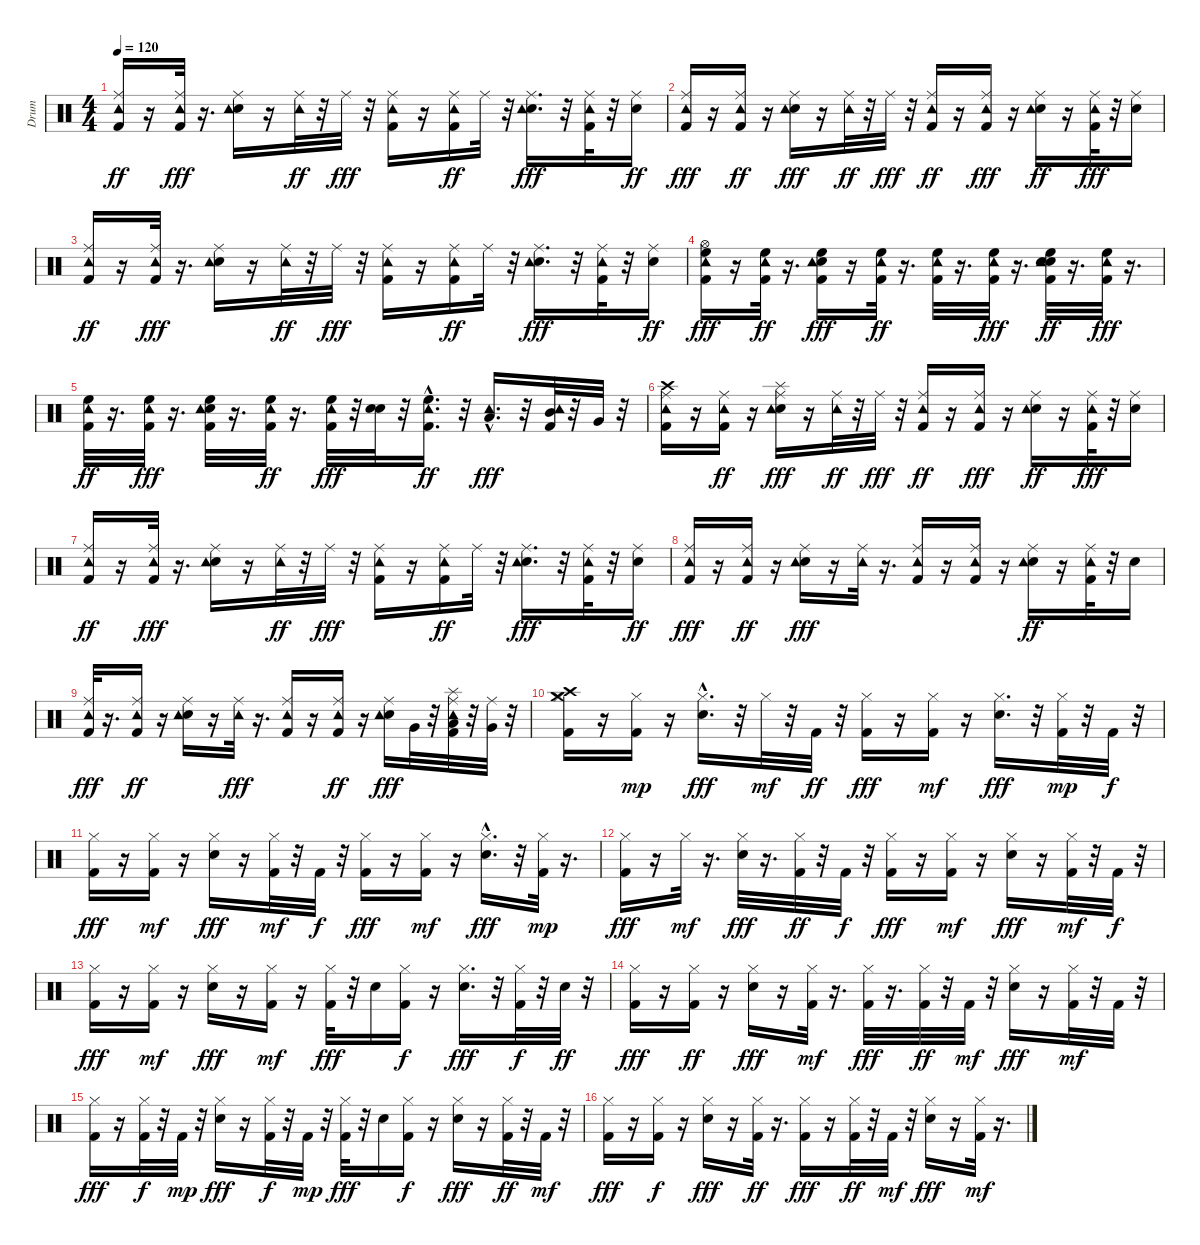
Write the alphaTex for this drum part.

\track ("Drum" "Drum") {instrument percussion}
\staff {score}
\articulation defaults
\ts (4 4)
\tempo 120
\clef neutral
\ks c
("Kick (hit) 2" "Ride (middle)" "Tambourine (hit)").16{dy ff} r.16 ("Kick (hit) 2" "Ride (middle)" "Tambourine (hit)").32{dy fff} r.16{d} ("Electric Snare (hit)" "Ride (middle)" "Tambourine (hit)").16 r.16 ("Ride (middle)" "Tambourine (hit)").32{dy ff} r.32 "Ride (middle)".32{dy fff} r.32 ("Kick (hit) 2" "Ride (middle)" "Tambourine (hit)").16 r.16 ("Kick (hit) 2" "Ride (middle)" "Tambourine (hit)").16{dy ff} "Ride (middle)".32 r.32 ("Electric Snare (hit)" "Ride (middle)" "Tambourine (hit)").16{d dy fff} r.32 ("Kick (hit) 2" "Ride (middle)" "Tambourine (hit)").32 r.32 ("Electric Snare (hit)" "Ride (middle)").16{dy ff} |
("Kick (hit) 2" "Ride (middle)" "Tambourine (hit)").16{dy fff} r.16 ("Kick (hit) 2" "Ride (middle)" "Tambourine (hit)").16{dy ff} r.16 ("Electric Snare (hit)" "Ride (middle)" "Tambourine (hit)").16{dy fff} r.16 ("Ride (middle)" "Tambourine (hit)").32{dy ff} r.32 "Ride (middle)".32{dy fff} r.32 ("Kick (hit) 2" "Ride (middle)" "Tambourine (hit)").16{dy ff} r.16 ("Kick (hit) 2" "Ride (middle)" "Tambourine (hit)").16{dy fff} r.16 ("Electric Snare (hit)" "Ride (middle)" "Tambourine (hit)").16{dy ff} r.16 ("Kick (hit) 2" "Ride (middle)" "Tambourine (hit)").32{dy fff} r.32 ("Electric Snare (hit)" "Ride (middle)").16 |
("Kick (hit) 2" "Ride (middle)" "Tambourine (hit)").16{dy ff} r.16 ("Kick (hit) 2" "Ride (middle)" "Tambourine (hit)").32{dy fff} r.16{d} ("Electric Snare (hit)" "Ride (middle)" "Tambourine (hit)").16 r.16 ("Ride (middle)" "Tambourine (hit)").32{dy ff} r.32 "Ride (middle)".32{dy fff} r.32 ("Kick (hit) 2" "Ride (middle)" "Tambourine (hit)").16 r.16 ("Kick (hit) 2" "Ride (middle)" "Tambourine (hit)").16{dy ff} "Ride (middle)".32 r.32 ("Electric Snare (hit)" "Ride (middle)" "Tambourine (hit)").16{d dy fff} r.32 ("Kick (hit) 2" "Ride (middle)" "Tambourine (hit)").32 r.32 ("Electric Snare (hit)" "Ride (middle)").16{dy ff} |
("Kick (hit) 2" "Hi-Hat (open)" "High Floor Tom (hit)" "Tambourine (hit)").16{dy fff} r.16 ("Kick (hit) 2" "High Floor Tom (hit)" "Tambourine (hit)").32{dy ff} r.16{d} ("Kick (hit) 2" "Electric Snare (hit)" "High Floor Tom (hit)" "Tambourine (hit)").16{dy fff} r.16 ("Kick (hit) 2" "High Floor Tom (hit)" "Tambourine (hit)").32{dy ff} r.16{d} ("Kick (hit) 2" "High Floor Tom (hit)" "Tambourine (hit)").32 r.16{d} ("Kick (hit) 2" "High Floor Tom (hit)" "Tambourine (hit)").32{dy fff} r.16{d} ("Kick (hit) 2" "Snare (hit) 2" "Electric Snare (hit)" "High Floor Tom (hit)" "Tambourine (hit)").32{dy ff} r.16{d} ("Kick (hit) 2" "High Floor Tom (hit)" "Tambourine (hit)").32{dy fff} r.16{d} |
("Kick (hit) 2" "High Floor Tom (hit)" "Tambourine (hit)").32{dy ff} r.16{d} ("Kick (hit) 2" "High Floor Tom (hit)" "Tambourine (hit)").32{dy fff} r.16{d} ("Kick (hit) 2" "Electric Snare (hit)" "High Floor Tom (hit)" "Tambourine (hit)").32 r.16{d} ("Kick (hit) 2" "High Floor Tom (hit)" "Tambourine (hit)").32{dy ff} r.16{d} ("Kick (hit) 2" "High Floor Tom (hit)" "Tambourine (hit)").32{dy fff} r.32 ("Electric Snare (hit)" "Electric Snare (hit)").32 r.32 ("Kick (hit) 2" "High Floor Tom (hit)"{hac} "Tambourine (hit)").16{d dy ff} r.32 ("Low Tom (hit)"{hac} "Tambourine (hit)").16{d dy fff} r.32 ("Kick (hit) 2" "Mid Tom (hit)" "Tambourine (hit)").32 r.32 "Very Low Tom (hit)".32 r.32 |
("Kick (hit) 2" "Crash high (hit)" "Ride (middle)" "Tambourine (hit)").16 r.16 ("Kick (hit) 2" "Ride (middle)" "Tambourine (hit)").16{dy ff} r.16 ("Electric Snare (hit)" "Ride (middle)" "Tambourine (hit)" "Splash (hit)").16{dy fff} r.16 ("Ride (middle)" "Tambourine (hit)").32{dy ff} r.32 "Ride (middle)".32{dy fff} r.32 ("Kick (hit) 2" "Ride (middle)" "Tambourine (hit)").16{dy ff} r.16 ("Kick (hit) 2" "Ride (middle)" "Tambourine (hit)").16{dy fff} r.16 ("Electric Snare (hit)" "Ride (middle)" "Tambourine (hit)").16{dy ff} r.16 ("Kick (hit) 2" "Ride (middle)" "Tambourine (hit)").32{dy fff} r.32 ("Electric Snare (hit)" "Ride (middle)").16 |
("Kick (hit) 2" "Ride (middle)" "Tambourine (hit)").16{dy ff} r.16 ("Kick (hit) 2" "Ride (middle)" "Tambourine (hit)").32{dy fff} r.16{d} ("Electric Snare (hit)" "Ride (middle)" "Tambourine (hit)").16 r.16 ("Ride (middle)" "Tambourine (hit)").32{dy ff} r.32 "Ride (middle)".32{dy fff} r.32 ("Kick (hit) 2" "Ride (middle)" "Tambourine (hit)").16 r.16 ("Kick (hit) 2" "Ride (middle)" "Tambourine (hit)").16{dy ff} "Ride (middle)".32 r.32 ("Electric Snare (hit)" "Ride (middle)" "Tambourine (hit)").16{d dy fff} r.32 ("Kick (hit) 2" "Ride (middle)" "Tambourine (hit)").32 r.32 ("Electric Snare (hit)" "Ride (middle)").16{dy ff} |
("Kick (hit) 2" "Ride (middle)" "Tambourine (hit)").16{dy fff} r.16 ("Kick (hit) 2" "Ride (middle)" "Tambourine (hit)").16{dy ff} r.16 ("Electric Snare (hit)" "Ride (middle)" "Tambourine (hit)").16{dy fff} r.16 ("Ride (middle)" "Tambourine (hit)").32 r.16{d} ("Kick (hit) 2" "Ride (middle)" "Tambourine (hit)").16 r.16 ("Kick (hit) 2" "Ride (middle)" "Tambourine (hit)").16 r.16 ("Electric Snare (hit)" "Ride (middle)" "Tambourine (hit)").16{dy ff} r.16 ("Kick (hit) 2" "Ride (middle)" "Tambourine (hit)").32 r.32 "Electric Snare (hit)".16 |
("Kick (hit) 2" "Ride (middle)" "Tambourine (hit)").32{dy fff} r.16{d} ("Kick (hit) 2" "Ride (middle)" "Tambourine (hit)").16{dy ff} r.16 ("Electric Snare (hit)" "Ride (middle)" "Tambourine (hit)").16 r.16 ("Ride (middle)" "Tambourine (hit)").32{dy fff} r.16{d} ("Kick (hit) 2" "Ride (middle)" "Tambourine (hit)").16 r.16 ("Kick (hit) 2" "Ride (middle)" "Tambourine (hit)").16{dy ff} r.16 ("Electric Snare (hit)" "Ride (middle)" "Tambourine (hit)").16{dy fff} "Very Low Tom (hit)".32 r.32 ("Kick (hit) 2" "Low Tom (hit)" "Ride (middle)" "Tambourine (hit)" "Splash (hit)").32 r.32 ("Very Low Tom (hit)" "Ride (middle)").32 r.32 |
("Kick (hit) 2" "Hi-Hat (closed)" "Crash high (hit)" "Crash medium (hit)").16 r.16 ("Kick (hit) 2" "Hi-Hat (closed)").16{dy mp} r.16 ("Electric Snare (hit)"{hac} "Hi-Hat (closed)").16{d dy fff} r.32 "Hi-Hat (closed)".32{dy mf} r.32 "Kick (hit) 2".32{dy ff} r.32 ("Kick (hit) 2" "Hi-Hat (closed)").16{dy fff} r.16 ("Kick (hit) 2" "Hi-Hat (closed)").16{dy mf} r.16 ("Electric Snare (hit)" "Hi-Hat (closed)").16{d dy fff} r.32 ("Kick (hit) 2" "Hi-Hat (closed)").32{dy mp} r.32 "Kick (hit) 2".32{dy f} r.32 |
("Kick (hit) 2" "Hi-Hat (closed)").16{dy fff} r.16 ("Kick (hit) 2" "Hi-Hat (closed)").16{dy mf} r.16 ("Electric Snare (hit)" "Hi-Hat (closed)").16{dy fff} r.16 ("Kick (hit) 2" "Hi-Hat (closed)").32{dy mf} r.32 "Kick (hit) 2".32{dy f} r.32 ("Kick (hit) 2" "Hi-Hat (closed)").16{dy fff} r.16 ("Kick (hit) 2" "Hi-Hat (closed)").16{dy mf} r.16 ("Electric Snare (hit)"{hac} "Hi-Hat (closed)").16{d dy fff} r.32 ("Kick (hit) 2" "Hi-Hat (closed)").32{dy mp} r.16{d} |
("Kick (hit) 2" "Hi-Hat (closed)").16{dy fff} r.16 "Hi-Hat (closed)".32{dy mf} r.16{d} ("Electric Snare (hit)" "Hi-Hat (closed)").32{dy fff} r.16{d} ("Kick (hit) 2" "Hi-Hat (closed)").32{dy ff} r.32 "Kick (hit) 2".32{dy f} r.32 ("Kick (hit) 2" "Hi-Hat (closed)").16{dy fff} r.16 ("Kick (hit) 2" "Hi-Hat (closed)").16{dy mf} r.16 ("Electric Snare (hit)" "Hi-Hat (closed)").16{dy fff} r.16 ("Kick (hit) 2" "Hi-Hat (closed)").32{dy mf} r.32 "Kick (hit) 2".32{dy f} r.32 |
("Kick (hit) 2" "Hi-Hat (closed)").16{dy fff} r.16 ("Kick (hit) 2" "Hi-Hat (closed)").16{dy mf} r.16 ("Electric Snare (hit)" "Hi-Hat (closed)").16{dy fff} r.16 ("Kick (hit) 2" "Hi-Hat (closed)").16{dy mf} r.16 ("Kick (hit) 2" "Hi-Hat (closed)").32{dy fff} r.32 "Electric Snare (hit)".16 ("Kick (hit) 2" "Hi-Hat (closed)").16{dy f} r.16 ("Electric Snare (hit)" "Hi-Hat (closed)").16{d dy fff} r.32 ("Kick (hit) 2" "Hi-Hat (closed)").32{dy f} r.32 "Electric Snare (hit)".32{dy ff} r.32 |
("Kick (hit) 2" "Hi-Hat (closed)").16{dy fff} r.16 ("Kick (hit) 2" "Hi-Hat (closed)").16{dy ff} r.16 ("Electric Snare (hit)" "Hi-Hat (closed)").16{dy fff} r.16 ("Kick (hit) 2" "Hi-Hat (closed)").32{dy mf} r.16{d} ("Kick (hit) 2" "Hi-Hat (closed)").32{dy fff} r.16{d} ("Kick (hit) 2" "Hi-Hat (closed)").32{dy ff} r.32 "Kick (hit) 2".32{dy mf} r.32 ("Electric Snare (hit)" "Hi-Hat (closed)").16{dy fff} r.16 ("Kick (hit) 2" "Hi-Hat (closed)").32{dy mf} r.32 "Kick (hit) 2".32 r.32 |
("Kick (hit) 2" "Hi-Hat (closed)").16{dy fff} r.16 ("Kick (hit) 2" "Hi-Hat (closed)").32{dy f} r.32 "Kick (hit) 2".32{dy mp} r.32 ("Electric Snare (hit)" "Hi-Hat (closed)").16{dy fff} r.16 ("Kick (hit) 2" "Hi-Hat (closed)").32{dy f} r.32 "Kick (hit) 2".32{dy mp} r.32 ("Kick (hit) 2" "Hi-Hat (closed)").32{dy fff} r.32 "Electric Snare (hit)".16 ("Kick (hit) 2" "Hi-Hat (closed)").16{dy f} r.16 ("Electric Snare (hit)" "Hi-Hat (closed)").16{dy fff} r.16 ("Kick (hit) 2" "Hi-Hat (closed)").32{dy ff} r.32 "Kick (hit) 2".32{dy mf} r.32 |
("Kick (hit) 2" "Hi-Hat (closed)").16{dy fff} r.16 ("Kick (hit) 2" "Hi-Hat (closed)").16{dy f} r.16 ("Electric Snare (hit)" "Hi-Hat (closed)").16{dy fff} r.16 ("Kick (hit) 2" "Hi-Hat (closed)").32{dy ff} r.16{d} ("Kick (hit) 2" "Hi-Hat (closed)").16{dy fff} r.16 ("Kick (hit) 2" "Hi-Hat (closed)").32{dy ff} r.32 "Kick (hit) 2".32{dy mf} r.32 ("Electric Snare (hit)" "Hi-Hat (closed)").16{dy fff} r.16 ("Kick (hit) 2" "Hi-Hat (closed)").32{dy mf} r.16{d}
